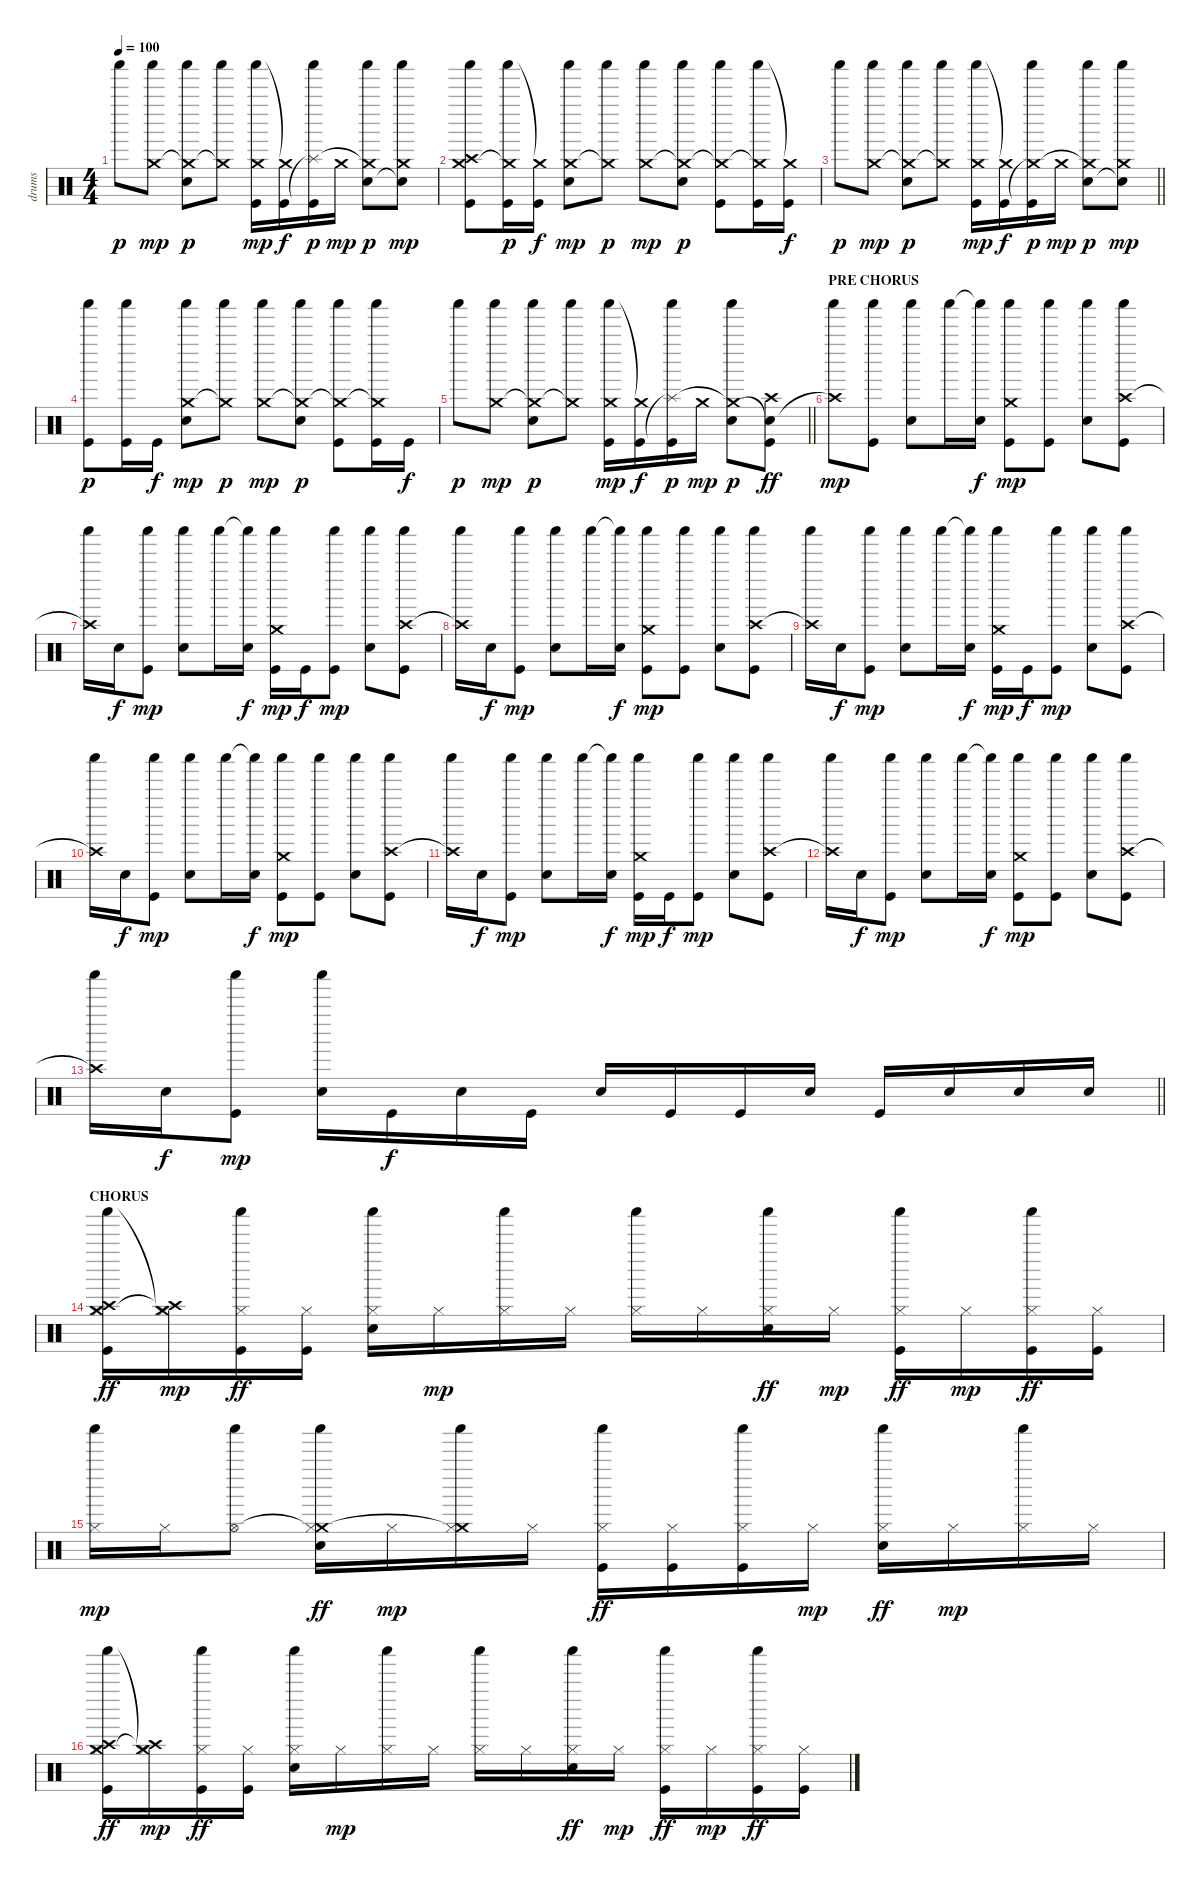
\track ("drums" "drums") {instrument percussion}
\staff {score}
\articulation defaults
\ts (4 4)
\tempo 100
\clef neutral
\ks c "Shaker (hit)".8{dy p}
("Shaker (hit)" "Crash medium (hit)").8{dy mp} ("Shaker (hit)" "Crash medium (hit)"{t} "Electric Snare (hit)").8{dy p} ("Shaker (hit)" "Crash medium (hit)"{t}).8 ("Shaker (hit)" "Crash medium (hit)" "Kick (hit)").16{dy mp} ("Crash medium (hit)"{t} "Kick (hit)").16{dy f} ("Shaker (hit)" "Splash (hit)"{t} "Kick (hit)").16{dy p} "Crash medium (hit)".16{dy mp} ("Shaker (hit)" "Crash medium (hit)"{t} "Electric Snare (hit)").8{dy p} ("Shaker (hit)" "Crash medium (hit)" "Electric Snare (hit)"{t}).8{dy mp} |
("Shaker (hit)" "Crash medium (hit)" "Crash high (hit)" "Kick (hit)").8 ("Shaker (hit)" "Crash medium (hit)"{t} "Kick (hit)").16{dy p} ("Crash medium (hit)"{t} "Kick (hit)").16{dy f} ("Shaker (hit)" "Crash medium (hit)" "Electric Snare (hit)").8{dy mp} ("Shaker (hit)" "Crash medium (hit)"{t}).8{dy p} ("Shaker (hit)" "Crash medium (hit)").8{dy mp} ("Shaker (hit)" "Crash medium (hit)"{t} "Electric Snare (hit)").8{dy p} ("Shaker (hit)" "Crash medium (hit)"{t} "Kick (hit)").8 ("Shaker (hit)" "Crash medium (hit)"{t} "Kick (hit)").16 ("Crash medium (hit)"{t} "Kick (hit)").16{dy f} |
\barLineRight lightlight "Shaker (hit)".8{dy p}
("Shaker (hit)" "Crash medium (hit)").8{dy mp} ("Shaker (hit)" "Crash medium (hit)"{t} "Electric Snare (hit)").8{dy p} ("Shaker (hit)" "Crash medium (hit)"{t}).8 ("Shaker (hit)" "Crash medium (hit)" "Kick (hit)").16{dy mp} ("Crash medium (hit)"{t} "Kick (hit)").16{dy f} ("Shaker (hit)" "Crash medium (hit)"{t} "Kick (hit)").16{dy p} "Crash medium (hit)".16{dy mp} ("Shaker (hit)" "Crash medium (hit)"{t} "Electric Snare (hit)").8{dy p} ("Shaker (hit)" "Crash medium (hit)" "Electric Snare (hit)"{t}).8{dy mp} |
("Shaker (hit)" "Kick (hit)").8{dy p} ("Shaker (hit)" "Kick (hit)").16 "Kick (hit)".16{dy f} ("Shaker (hit)" "Crash medium (hit)" "Electric Snare (hit)").8{dy mp} ("Shaker (hit)" "Crash medium (hit)"{t}).8{dy p} ("Shaker (hit)" "Crash medium (hit)").8{dy mp} ("Shaker (hit)" "Crash medium (hit)"{t} "Electric Snare (hit)").8{dy p} ("Shaker (hit)" "Crash medium (hit)"{t} "Kick (hit)").8 ("Shaker (hit)" "Crash medium (hit)"{t} "Kick (hit)").16 "Kick (hit)".16{dy f} |
\barLineRight lightlight "Shaker (hit)".8{dy p}
("Shaker (hit)" "Crash medium (hit)").8{dy mp} ("Shaker (hit)" "Crash medium (hit)"{t} "Electric Snare (hit)").8{dy p} ("Shaker (hit)" "Crash medium (hit)"{t}).8 ("Shaker (hit)" "Crash medium (hit)" "Kick (hit)").16{dy mp} ("Crash medium (hit)"{t} "Kick (hit)").16{dy f} ("Shaker (hit)" "Splash (hit)"{t} "Kick (hit)").16{dy p} "Crash medium (hit)".16{dy mp} ("Shaker (hit)" "Crash medium (hit)"{t} "Electric Snare (hit)").8{dy p} ("Crash high (hit)" "Electric Snare (hit)"{t} "Kick (hit)").8{dy ff} |
\section ("" "PRE CHORUS")
("Shaker (hit)" "Crash high (hit)"{t}).8{dy mp} ("Shaker (hit)" "Kick (hit)").8 ("Shaker (hit)" "Electric Snare (hit)").8 "Shaker (hit)".16 ("Shaker (hit)"{t} "Electric Snare (hit)").16{dy f} ("Shaker (hit)" "Crash medium (hit)" "Kick (hit)").8{dy mp} ("Shaker (hit)" "Kick (hit)").8 ("Shaker (hit)" "Electric Snare (hit)").8 ("Shaker (hit)" "Crash high (hit)" "Kick (hit)").8 |
("Shaker (hit)" "Crash high (hit)"{t}).16 "Electric Snare (hit)".16{dy f} ("Shaker (hit)" "Kick (hit)").8{dy mp} ("Shaker (hit)" "Electric Snare (hit)").8 "Shaker (hit)".16 ("Shaker (hit)"{t} "Electric Snare (hit)").16{dy f} ("Shaker (hit)" "Crash medium (hit)" "Kick (hit)").16{dy mp} "Kick (hit)".16{dy f} ("Shaker (hit)" "Kick (hit)").8{dy mp} ("Shaker (hit)" "Electric Snare (hit)").8 ("Shaker (hit)" "Crash high (hit)" "Kick (hit)").8 |
("Shaker (hit)" "Crash high (hit)"{t}).16 "Electric Snare (hit)".16{dy f} ("Shaker (hit)" "Kick (hit)").8{dy mp} ("Shaker (hit)" "Electric Snare (hit)").8 "Shaker (hit)".16 ("Shaker (hit)"{t} "Electric Snare (hit)").16{dy f} ("Shaker (hit)" "Crash medium (hit)" "Kick (hit)").8{dy mp} ("Shaker (hit)" "Kick (hit)").8 ("Shaker (hit)" "Electric Snare (hit)").8 ("Shaker (hit)" "Crash high (hit)" "Kick (hit)").8 |
("Shaker (hit)" "Crash high (hit)"{t}).16 "Electric Snare (hit)".16{dy f} ("Shaker (hit)" "Kick (hit)").8{dy mp} ("Shaker (hit)" "Electric Snare (hit)").8 "Shaker (hit)".16 ("Shaker (hit)"{t} "Electric Snare (hit)").16{dy f} ("Shaker (hit)" "Crash medium (hit)" "Kick (hit)").16{dy mp} "Kick (hit)".16{dy f} ("Shaker (hit)" "Kick (hit)").8{dy mp} ("Shaker (hit)" "Electric Snare (hit)").8 ("Shaker (hit)" "Crash high (hit)" "Kick (hit)").8 |
("Shaker (hit)" "Crash high (hit)"{t}).16 "Electric Snare (hit)".16{dy f} ("Shaker (hit)" "Kick (hit)").8{dy mp} ("Shaker (hit)" "Electric Snare (hit)").8 "Shaker (hit)".16 ("Shaker (hit)"{t} "Electric Snare (hit)").16{dy f} ("Shaker (hit)" "Crash medium (hit)" "Kick (hit)").8{dy mp} ("Shaker (hit)" "Kick (hit)").8 ("Shaker (hit)" "Electric Snare (hit)").8 ("Shaker (hit)" "Crash high (hit)" "Kick (hit)").8 |
("Shaker (hit)" "Crash high (hit)"{t}).16 "Electric Snare (hit)".16{dy f} ("Shaker (hit)" "Kick (hit)").8{dy mp} ("Shaker (hit)" "Electric Snare (hit)").8 "Shaker (hit)".16 ("Shaker (hit)"{t} "Electric Snare (hit)").16{dy f} ("Shaker (hit)" "Crash medium (hit)" "Kick (hit)").16{dy mp} "Kick (hit)".16{dy f} ("Shaker (hit)" "Kick (hit)").8{dy mp} ("Shaker (hit)" "Electric Snare (hit)").8 ("Shaker (hit)" "Crash high (hit)" "Kick (hit)").8 |
("Shaker (hit)" "Crash high (hit)"{t}).16 "Electric Snare (hit)".16{dy f} ("Shaker (hit)" "Kick (hit)").8{dy mp} ("Shaker (hit)" "Electric Snare (hit)").8 "Shaker (hit)".16 ("Shaker (hit)"{t} "Electric Snare (hit)").16{dy f} ("Shaker (hit)" "Crash medium (hit)" "Kick (hit)").8{dy mp} ("Shaker (hit)" "Kick (hit)").8 ("Shaker (hit)" "Electric Snare (hit)").8 ("Shaker (hit)" "Crash high (hit)" "Kick (hit)").8 |
\barLineRight lightlight
("Shaker (hit)" "Crash high (hit)"{t}).16 "Electric Snare (hit)".16{dy f} ("Shaker (hit)" "Kick (hit)").8{dy mp} ("Shaker (hit)" "Electric Snare (hit)").16 "Kick (hit)".16{dy f} "Electric Snare (hit)".16 "Kick (hit)".16 "Electric Snare (hit)".16 "Kick (hit)".16 "Kick (hit)".16 "Electric Snare (hit)".16 "Kick (hit)".16 "Electric Snare (hit)".16 "Electric Snare (hit)".16 "Electric Snare (hit)".16 |
\section ("" "CHORUS")
("Shaker (hit)" "Crash medium (hit)" "Crash high (hit)" "Hi-Hat (closed)" "Kick (hit)").16{dy ff} ("Crash medium (hit)"{t} "Crash high (hit)"{t} "Hi-Hat (closed)").16{dy mp} ("Shaker (hit)" "Hi-Hat (closed)" "Kick (hit)").16{dy ff} ("Hi-Hat (closed)" "Kick (hit)").16 ("Shaker (hit)" "Hi-Hat (closed)" "Electric Snare (hit)").16 "Hi-Hat (closed)".16{dy mp} ("Shaker (hit)" "Hi-Hat (closed)").16 "Hi-Hat (closed)".16 ("Shaker (hit)" "Hi-Hat (closed)").16 "Hi-Hat (closed)".16 ("Shaker (hit)" "Hi-Hat (closed)" "Electric Snare (hit)").16{dy ff} "Hi-Hat (closed)".16{dy mp} ("Shaker (hit)" "Hi-Hat (closed)" "Kick (hit)").16{dy ff} "Hi-Hat (closed)".16{dy mp} ("Shaker (hit)" "Hi-Hat (closed)" "Kick (hit)").16{dy ff} ("Hi-Hat (closed)" "Kick (hit)").16 |
("Shaker (hit)" "Hi-Hat (closed)").16{dy mp} "Hi-Hat (closed)".16 ("Shaker (hit)" "Hi-Hat (open)").8 ("Shaker (hit)" "Crash medium (hit)"{t} "Hi-Hat (closed)" "Electric Snare (hit)").16{dy ff} "Hi-Hat (closed)".16{dy mp} ("Shaker (hit)" "Crash medium (hit)"{t} "Hi-Hat (closed)").16 "Hi-Hat (closed)".16 ("Shaker (hit)" "Hi-Hat (closed)" "Kick (hit)").16{dy ff} ("Hi-Hat (closed)" "Kick (hit)").16 ("Shaker (hit)" "Hi-Hat (closed)" "Kick (hit)").16 "Hi-Hat (closed)".16{dy mp} ("Shaker (hit)" "Hi-Hat (closed)" "Electric Snare (hit)").16{dy ff} "Hi-Hat (closed)".16{dy mp} ("Shaker (hit)" "Hi-Hat (closed)").16 "Hi-Hat (closed)".16 |
("Shaker (hit)" "Crash medium (hit)" "Crash high (hit)" "Hi-Hat (closed)" "Kick (hit)").16{dy ff} ("Crash medium (hit)"{t} "Crash high (hit)"{t} "Hi-Hat (closed)").16{dy mp} ("Shaker (hit)" "Hi-Hat (closed)" "Kick (hit)").16{dy ff} ("Hi-Hat (closed)" "Kick (hit)").16 ("Shaker (hit)" "Hi-Hat (closed)" "Electric Snare (hit)").16 "Hi-Hat (closed)".16{dy mp} ("Shaker (hit)" "Hi-Hat (closed)").16 "Hi-Hat (closed)".16 ("Shaker (hit)" "Hi-Hat (closed)").16 "Hi-Hat (closed)".16 ("Shaker (hit)" "Hi-Hat (closed)" "Electric Snare (hit)").16{dy ff} "Hi-Hat (closed)".16{dy mp} ("Shaker (hit)" "Hi-Hat (closed)" "Kick (hit)").16{dy ff} "Hi-Hat (closed)".16{dy mp} ("Shaker (hit)" "Hi-Hat (closed)" "Kick (hit)").16{dy ff} ("Hi-Hat (closed)" "Kick (hit)").16
